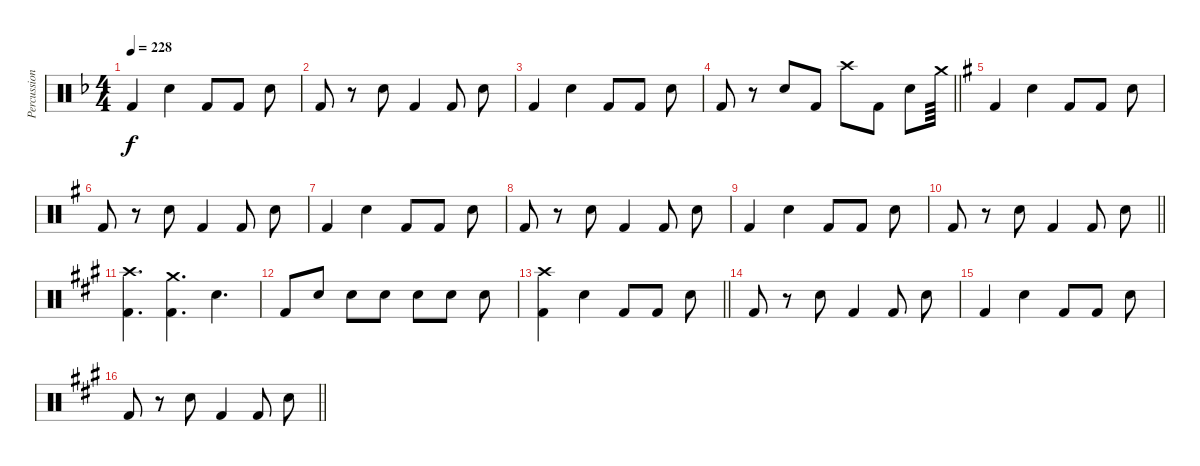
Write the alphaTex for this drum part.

\track ("Percussion" "Percussion") {instrument percussion}
\staff {score}
\articulation defaults
\ts (4 4)
\tempo 228
\clef neutral
\ks f "Kick (hit) 2".4{dy f} "Snare (hit) 2".4 "Kick (hit) 2".8 "Kick (hit) 2".8 "Snare (hit) 2".8
|
"Kick (hit) 2".8 r.8 "Snare (hit) 2".8 "Kick (hit) 2".4 "Kick (hit) 2".8 "Snare (hit) 2".8 |
"Kick (hit) 2".4 "Snare (hit) 2".4 "Kick (hit) 2".8 "Kick (hit) 2".8 "Snare (hit) 2".8 |
\barLineRight lightlight "Kick (hit) 2".8
r.8 "Snare (hit) 2".8 "Kick (hit) 2".8 "Crash high (hit)".8 "Kick (hit) 2".8 "Snare (hit) 2".8 "Crash medium (hit)".64 |
\ks g "Kick (hit) 2".4 "Snare (hit) 2".4 "Kick (hit) 2".8 "Kick (hit) 2".8 "Snare (hit) 2".8
|
"Kick (hit) 2".8 r.8 "Snare (hit) 2".8 "Kick (hit) 2".4 "Kick (hit) 2".8 "Snare (hit) 2".8 |
"Kick (hit) 2".4 "Snare (hit) 2".4 "Kick (hit) 2".8 "Kick (hit) 2".8 "Snare (hit) 2".8 |
"Kick (hit) 2".8 r.8 "Snare (hit) 2".8 "Kick (hit) 2".4 "Kick (hit) 2".8 "Snare (hit) 2".8 |
"Kick (hit) 2".4 "Snare (hit) 2".4 "Kick (hit) 2".8 "Kick (hit) 2".8 "Snare (hit) 2".8 |
\barLineRight lightlight "Kick (hit) 2".8
r.8 "Snare (hit) 2".8 "Kick (hit) 2".4 "Kick (hit) 2".8 "Snare (hit) 2".8 |
\ks a
("Crash high (hit)" "Kick (hit) 2").4{d} ("Crash medium (hit)" "Kick (hit) 2").4{d} "Snare (hit) 2".4{d} |
"Kick (hit) 2".8 "Snare (hit) 2".8 "Snare (hit) 2".8 "Snare (hit) 2".8 "Snare (hit) 2".8 "Snare (hit) 2".8 "Snare (hit) 2".8 |
\barLineRight lightlight
("Kick (hit) 2" "Crash high (hit)").4 "Snare (hit) 2".4 "Kick (hit) 2".8 "Kick (hit) 2".8 "Snare (hit) 2".8 |
"Kick (hit) 2".8 r.8 "Snare (hit) 2".8 "Kick (hit) 2".4 "Kick (hit) 2".8 "Snare (hit) 2".8 |
"Kick (hit) 2".4 "Snare (hit) 2".4 "Kick (hit) 2".8 "Kick (hit) 2".8 "Snare (hit) 2".8 |
\barLineRight lightlight "Kick (hit) 2".8
r.8 "Snare (hit) 2".8 "Kick (hit) 2".4 "Kick (hit) 2".8 "Snare (hit) 2".8
